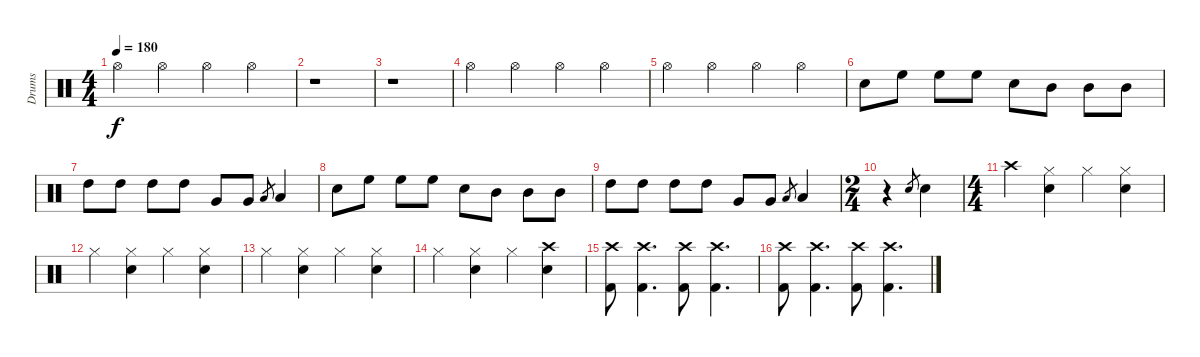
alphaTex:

\track ("Drums" "Drums") {instrument percussion}
\staff {score}
\articulation defaults
\ts (4 4)
\tempo 180
\clef neutral
\ks c "Hi-Hat (open)".4{dy f} "Hi-Hat (open)".4 "Hi-Hat (open)".4 "Hi-Hat (open)".4
|
r.1 |
r.1 |
"Hi-Hat (open)".4 "Hi-Hat (open)".4 "Hi-Hat (open)".4 "Hi-Hat (open)".4 |
"Hi-Hat (open)".4 "Hi-Hat (open)".4 "Hi-Hat (open)".4 "Hi-Hat (open)".4 |
"Snare (hit) 2".8 "High Floor Tom (hit)".8 "High Floor Tom (hit)".8 "High Floor Tom (hit)".8 "Snare (hit) 2".8 "Mid Tom (hit)".8 "Mid Tom (hit)".8 "Mid Tom (hit)".8 |
"High Tom (hit)".8 "High Tom (hit)".8 "High Tom (hit)".8 "High Tom (hit)".8 "Very Low Tom (hit)".8 "Very Low Tom (hit)".8 "Low Floor Tom (hit)".8{gr} "Low Floor Tom (hit)".4 |
"Snare (hit) 2".8 "High Floor Tom (hit)".8 "High Floor Tom (hit)".8 "High Floor Tom (hit)".8 "Snare (hit) 2".8 "Mid Tom (hit)".8 "Mid Tom (hit)".8 "Mid Tom (hit)".8 |
"High Tom (hit)".8 "High Tom (hit)".8 "High Tom (hit)".8 "High Tom (hit)".8 "Very Low Tom (hit)".8 "Very Low Tom (hit)".8 "Low Floor Tom (hit)".8{gr} "Low Floor Tom (hit)".4 |
\ts (2 4)
r.4 "Snare (hit) 2".8{gr} "Snare (hit) 2".4 |
\ts (4 4)
"Crash high (hit)".4 ("Hi-Hat (closed)" "Snare (hit) 2").4 "Hi-Hat (closed)".4 ("Hi-Hat (closed)" "Snare (hit) 2").4 |
"Hi-Hat (closed)".4 ("Hi-Hat (closed)" "Snare (hit) 2").4 "Hi-Hat (closed)".4 ("Hi-Hat (closed)" "Snare (hit) 2").4 |
"Hi-Hat (closed)".4 ("Hi-Hat (closed)" "Snare (hit) 2").4 "Hi-Hat (closed)".4 ("Hi-Hat (closed)" "Snare (hit) 2").4 |
"Hi-Hat (closed)".4 ("Hi-Hat (closed)" "Snare (hit) 2").4 "Hi-Hat (closed)".4 ("Crash high (hit)" "Snare (hit) 2").4 |
("Crash high (hit)" "Kick (hit) 2").8 ("Crash high (hit)" "Kick (hit) 2").4{d} ("Crash high (hit)" "Kick (hit) 2").8 ("Crash high (hit)" "Kick (hit) 2").4{d} |
("Crash high (hit)" "Kick (hit) 2").8 ("Crash high (hit)" "Kick (hit) 2").4{d} ("Crash high (hit)" "Kick (hit) 2").8 ("Crash high (hit)" "Kick (hit) 2").4{d}
